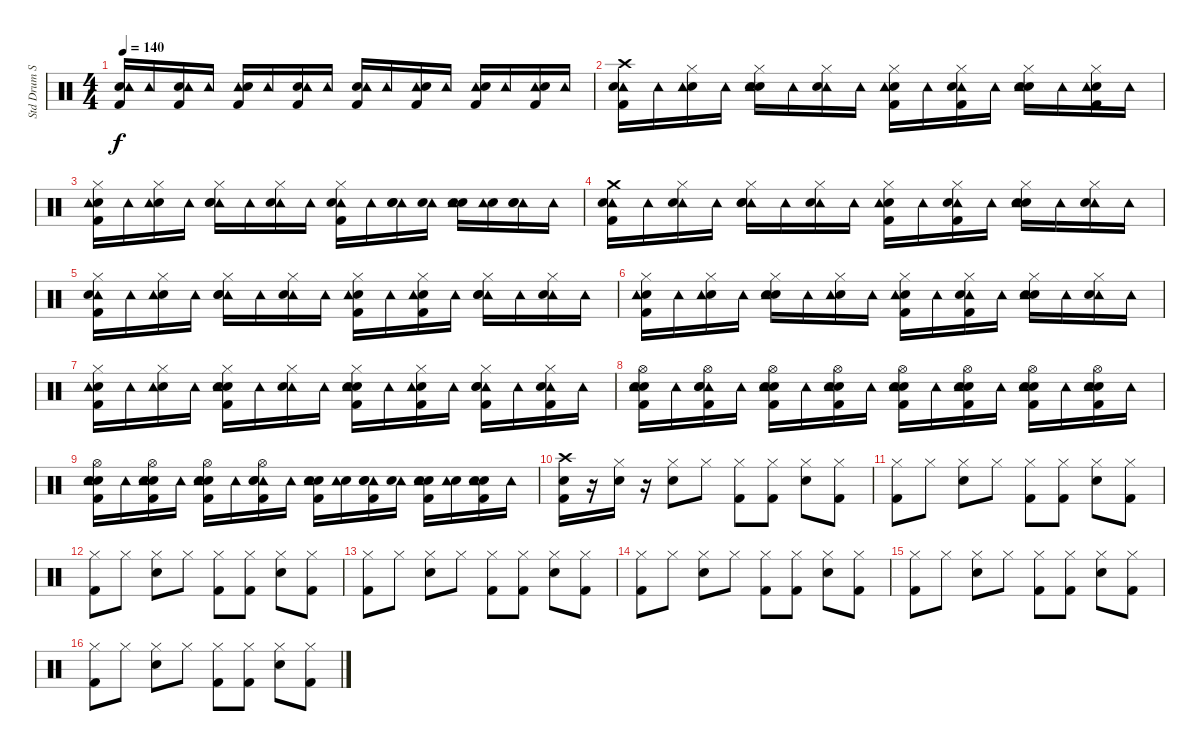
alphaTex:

\track ("Std Drum Set" "Std Drum S") {instrument percussion}
\staff {score}
\articulation defaults
\ts (4 4)
\tempo 140
\clef neutral
\ks c
("Snare (hit) 2" "Tambourine (hit)" "Kick (hit) 2").16{dy f} "Tambourine (hit)".16 ("Kick (hit) 2" "Snare (hit) 2" "Tambourine (hit)").16 "Tambourine (hit)".16 ("Kick (hit) 2" "Tambourine (hit)" "Snare (hit) 2").16 "Tambourine (hit)".16 ("Snare (hit) 2" "Kick (hit) 2" "Tambourine (hit)").16 "Tambourine (hit)".16 ("Snare (hit) 2" "Kick (hit) 2" "Tambourine (hit)").16 "Tambourine (hit)".16 ("Tambourine (hit)" "Snare (hit) 2" "Kick (hit) 2").16 "Tambourine (hit)".16 ("Kick (hit) 2" "Tambourine (hit)" "Snare (hit) 2").16 "Tambourine (hit)".16 ("Tambourine (hit)" "Snare (hit) 2" "Kick (hit) 2").16 "Tambourine (hit)".16 |
("Kick (hit) 2" "Tambourine (hit)" "Hand Clap (hit)" "Crash high (hit)").16 "Tambourine (hit)".16 ("Hand Clap (hit)" "Hi-Hat (closed)" "Tambourine (hit)").16 "Tambourine (hit)".16 ("Snare (hit) 2" "Tambourine (hit)" "Hi-Hat (closed)" "Hand Clap (hit)").16 "Tambourine (hit)".16 ("Tambourine (hit)" "Hi-Hat (closed)" "Hand Clap (hit)").16 "Tambourine (hit)".16 ("Hand Clap (hit)" "Hi-Hat (closed)" "Tambourine (hit)" "Kick (hit) 2").16 "Tambourine (hit)".16 ("Tambourine (hit)" "Kick (hit) 2" "Hi-Hat (closed)" "Hand Clap (hit)").16 "Tambourine (hit)".16 ("Hi-Hat (closed)" "Snare (hit) 2" "Tambourine (hit)" "Hand Clap (hit)").16 "Tambourine (hit)".16 ("Hi-Hat (closed)" "Kick (hit) 2" "Hand Clap (hit)" "Tambourine (hit)").16 "Tambourine (hit)".16 |
("Hand Clap (hit)" "Tambourine (hit)" "Hi-Hat (closed)" "Kick (hit) 2").16 "Tambourine (hit)".16 ("Hand Clap (hit)" "Hi-Hat (closed)" "Tambourine (hit)").16 "Tambourine (hit)".16 ("Tambourine (hit)" "Snare (hit) 2" "Hand Clap (hit)" "Hi-Hat (closed)").16 "Tambourine (hit)".16 ("Tambourine (hit)" "Hi-Hat (closed)" "Hand Clap (hit)").16 "Tambourine (hit)".16 ("Tambourine (hit)" "Kick (hit) 2" "Hi-Hat (closed)" "Hand Clap (hit)").16 "Tambourine (hit)".16 ("Tambourine (hit)" "Snare (hit) 2" "Hand Clap (hit)").16 ("Tambourine (hit)" "Snare (hit) 2").16 ("Hand Clap (hit)" "Snare (hit) 2" "Tambourine (hit)").16 ("Snare (hit) 2" "Tambourine (hit)").16 ("Tambourine (hit)" "Snare (hit) 2" "Hand Clap (hit)").16 "Tambourine (hit)".16 |
("Crash medium (hit)" "Tambourine (hit)" "Hand Clap (hit)" "Kick (hit) 2").16 "Tambourine (hit)".16 ("Hi-Hat (closed)" "Tambourine (hit)" "Hand Clap (hit)").16 "Tambourine (hit)".16 ("Tambourine (hit)" "Snare (hit) 2" "Hi-Hat (closed)" "Hand Clap (hit)").16 "Tambourine (hit)".16 ("Tambourine (hit)" "Hi-Hat (closed)" "Hand Clap (hit)").16 "Tambourine (hit)".16 ("Hi-Hat (closed)" "Kick (hit) 2" "Hand Clap (hit)" "Tambourine (hit)").16 "Tambourine (hit)".16 ("Tambourine (hit)" "Hi-Hat (closed)" "Kick (hit) 2" "Hand Clap (hit)").16 "Tambourine (hit)".16 ("Snare (hit) 2" "Hi-Hat (closed)" "Hand Clap (hit)" "Tambourine (hit)").16 "Tambourine (hit)".16 ("Tambourine (hit)" "Hand Clap (hit)" "Hi-Hat (closed)").16 "Tambourine (hit)".16 |
("Tambourine (hit)" "Hand Clap (hit)" "Kick (hit) 2" "Hi-Hat (closed)").16 "Tambourine (hit)".16 ("Hi-Hat (closed)" "Hand Clap (hit)" "Tambourine (hit)").16 "Tambourine (hit)".16 ("Tambourine (hit)" "Hi-Hat (closed)" "Snare (hit) 2" "Hand Clap (hit)").16 "Tambourine (hit)".16 ("Tambourine (hit)" "Hand Clap (hit)" "Hi-Hat (closed)").16 "Tambourine (hit)".16 ("Hand Clap (hit)" "Hi-Hat (closed)" "Tambourine (hit)" "Kick (hit) 2").16 "Tambourine (hit)".16 ("Hand Clap (hit)" "Tambourine (hit)" "Hi-Hat (closed)" "Kick (hit) 2").16 "Tambourine (hit)".16 ("Hi-Hat (closed)" "Tambourine (hit)" "Snare (hit) 2" "Hand Clap (hit)").16 "Tambourine (hit)".16 ("Tambourine (hit)" "Hand Clap (hit)" "Hi-Hat (closed)").16 "Tambourine (hit)".16 |
("Hand Clap (hit)" "Kick (hit) 2" "Tambourine (hit)" "Hi-Hat (closed)").16 "Tambourine (hit)".16 ("Hi-Hat (closed)" "Hand Clap (hit)" "Tambourine (hit)").16 "Tambourine (hit)".16 ("Snare (hit) 2" "Hand Clap (hit)" "Tambourine (hit)" "Hi-Hat (closed)").16 "Tambourine (hit)".16 ("Hand Clap (hit)" "Tambourine (hit)" "Hi-Hat (closed)").16 "Tambourine (hit)".16 ("Hi-Hat (closed)" "Hand Clap (hit)" "Kick (hit) 2" "Tambourine (hit)").16 "Tambourine (hit)".16 ("Kick (hit) 2" "Hi-Hat (closed)" "Tambourine (hit)" "Hand Clap (hit)").16 "Tambourine (hit)".16 ("Hi-Hat (closed)" "Snare (hit) 2" "Hand Clap (hit)" "Tambourine (hit)").16 "Tambourine (hit)".16 ("Hi-Hat (closed)" "Tambourine (hit)" "Hand Clap (hit)").16 "Tambourine (hit)".16 |
("Hi-Hat (closed)" "Hand Clap (hit)" "Tambourine (hit)" "Kick (hit) 2").16 "Tambourine (hit)".16 ("Hand Clap (hit)" "Hi-Hat (closed)" "Tambourine (hit)").16 "Tambourine (hit)".16 ("Snare (hit) 2" "Hand Clap (hit)" "Tambourine (hit)" "Kick (hit) 2" "Hi-Hat (closed)").16 "Tambourine (hit)".16 ("Hi-Hat (closed)" "Tambourine (hit)" "Hand Clap (hit)").16 "Tambourine (hit)".16 ("Hand Clap (hit)" "Tambourine (hit)" "Snare (hit) 2" "Kick (hit) 2" "Hi-Hat (closed)").16 "Tambourine (hit)".16 ("Kick (hit) 2" "Hi-Hat (closed)" "Hand Clap (hit)" "Tambourine (hit)").16 "Tambourine (hit)".16 ("Hi-Hat (closed)" "Tambourine (hit)" "Hand Clap (hit)" "Snare (hit) 2" "Kick (hit) 2").16 "Tambourine (hit)".16 ("Tambourine (hit)" "Kick (hit) 2" "Hand Clap (hit)" "Hi-Hat (closed)").16 "Tambourine (hit)".16 |
("Hand Clap (hit)" "Tambourine (hit)" "Kick (hit) 2" "Snare (hit) 2" "Hi-Hat (open)").16 "Tambourine (hit)".16 ("Tambourine (hit)" "Snare (hit) 2" "Hand Clap (hit)" "Kick (hit) 2" "Hi-Hat (open)").16 "Tambourine (hit)".16 ("Snare (hit) 2" "Kick (hit) 2" "Hand Clap (hit)" "Tambourine (hit)" "Hi-Hat (open)").16 "Tambourine (hit)".16 ("Kick (hit) 2" "Snare (hit) 2" "Hand Clap (hit)" "Hi-Hat (open)" "Tambourine (hit)").16 "Tambourine (hit)".16 ("Snare (hit) 2" "Hand Clap (hit)" "Tambourine (hit)" "Hi-Hat (open)" "Kick (hit) 2").16 "Tambourine (hit)".16 ("Kick (hit) 2" "Snare (hit) 2" "Tambourine (hit)" "Hand Clap (hit)" "Hi-Hat (open)").16 "Tambourine (hit)".16 ("Hi-Hat (open)" "Kick (hit) 2" "Hand Clap (hit)" "Tambourine (hit)" "Snare (hit) 2").16 "Tambourine (hit)".16 ("Hand Clap (hit)" "Hi-Hat (open)" "Tambourine (hit)" "Kick (hit) 2" "Snare (hit) 2").16 "Tambourine (hit)".16 |
("Snare (hit) 2" "Hi-Hat (open)" "Hand Clap (hit)" "Kick (hit) 2" "Tambourine (hit)").16 "Tambourine (hit)".16 ("Snare (hit) 2" "Tambourine (hit)" "Kick (hit) 2" "Hi-Hat (open)" "Hand Clap (hit)").16 "Tambourine (hit)".16 ("Hand Clap (hit)" "Kick (hit) 2" "Snare (hit) 2" "Hi-Hat (open)" "Tambourine (hit)").16 "Tambourine (hit)".16 ("Tambourine (hit)" "Hand Clap (hit)" "Hi-Hat (open)" "Kick (hit) 2" "Snare (hit) 2").16 "Tambourine (hit)".16 ("Hand Clap (hit)" "Snare (hit) 2" "Kick (hit) 2" "Tambourine (hit)").16 ("Snare (hit) 2" "Tambourine (hit)").16 ("Tambourine (hit)" "Kick (hit) 2" "Snare (hit) 2" "Hand Clap (hit)").16 ("Tambourine (hit)" "Snare (hit) 2").16 ("Kick (hit) 2" "Hand Clap (hit)" "Snare (hit) 2" "Tambourine (hit)").16 ("Snare (hit) 2" "Tambourine (hit)").16 ("Snare (hit) 2" "Kick (hit) 2" "Tambourine (hit)" "Hand Clap (hit)").16 "Tambourine (hit)".16 |
("Crash high (hit)" "Hand Clap (hit)" "Kick (hit) 2").16 r.16 ("Hi-Hat (closed)" "Hand Clap (hit)").16 r.16 ("Snare (hit) 2" "Hi-Hat (closed)").8 "Hi-Hat (closed)".8 ("Hi-Hat (closed)" "Kick (hit) 2").8 ("Hi-Hat (closed)" "Kick (hit) 2").8 ("Hi-Hat (closed)" "Snare (hit) 2").8 ("Hi-Hat (closed)" "Kick (hit) 2").8 |
("Kick (hit) 2" "Hi-Hat (closed)").8 "Hi-Hat (closed)".8 ("Hi-Hat (closed)" "Snare (hit) 2").8 "Hi-Hat (closed)".8 ("Kick (hit) 2" "Hi-Hat (closed)").8 ("Hi-Hat (closed)" "Kick (hit) 2").8 ("Hi-Hat (closed)" "Snare (hit) 2").8 ("Hi-Hat (closed)" "Kick (hit) 2").8 |
("Kick (hit) 2" "Hi-Hat (closed)").8 "Hi-Hat (closed)".8 ("Hi-Hat (closed)" "Snare (hit) 2").8 "Hi-Hat (closed)".8 ("Kick (hit) 2" "Hi-Hat (closed)").8 ("Kick (hit) 2" "Hi-Hat (closed)").8 ("Snare (hit) 2" "Hi-Hat (closed)").8 ("Hi-Hat (closed)" "Kick (hit) 2").8 |
("Kick (hit) 2" "Hi-Hat (closed)").8 "Hi-Hat (closed)".8 ("Snare (hit) 2" "Hi-Hat (closed)").8 "Hi-Hat (closed)".8 ("Hi-Hat (closed)" "Kick (hit) 2").8 ("Kick (hit) 2" "Hi-Hat (closed)").8 ("Hi-Hat (closed)" "Snare (hit) 2").8 ("Hi-Hat (closed)" "Kick (hit) 2").8 |
("Kick (hit) 2" "Hi-Hat (closed)").8 "Hi-Hat (closed)".8 ("Snare (hit) 2" "Hi-Hat (closed)").8 "Hi-Hat (closed)".8 ("Hi-Hat (closed)" "Kick (hit) 2").8 ("Hi-Hat (closed)" "Kick (hit) 2").8 ("Snare (hit) 2" "Hi-Hat (closed)").8 ("Kick (hit) 2" "Hi-Hat (closed)").8 |
("Hi-Hat (closed)" "Kick (hit) 2").8 "Hi-Hat (closed)".8 ("Snare (hit) 2" "Hi-Hat (closed)").8 "Hi-Hat (closed)".8 ("Kick (hit) 2" "Hi-Hat (closed)").8 ("Hi-Hat (closed)" "Kick (hit) 2").8 ("Snare (hit) 2" "Hi-Hat (closed)").8 ("Kick (hit) 2" "Hi-Hat (closed)").8 |
("Hi-Hat (closed)" "Kick (hit) 2").8 "Hi-Hat (closed)".8 ("Snare (hit) 2" "Hi-Hat (closed)").8 "Hi-Hat (closed)".8 ("Hi-Hat (closed)" "Kick (hit) 2").8 ("Hi-Hat (closed)" "Kick (hit) 2").8 ("Snare (hit) 2" "Hi-Hat (closed)").8 ("Hi-Hat (closed)" "Kick (hit) 2").8
